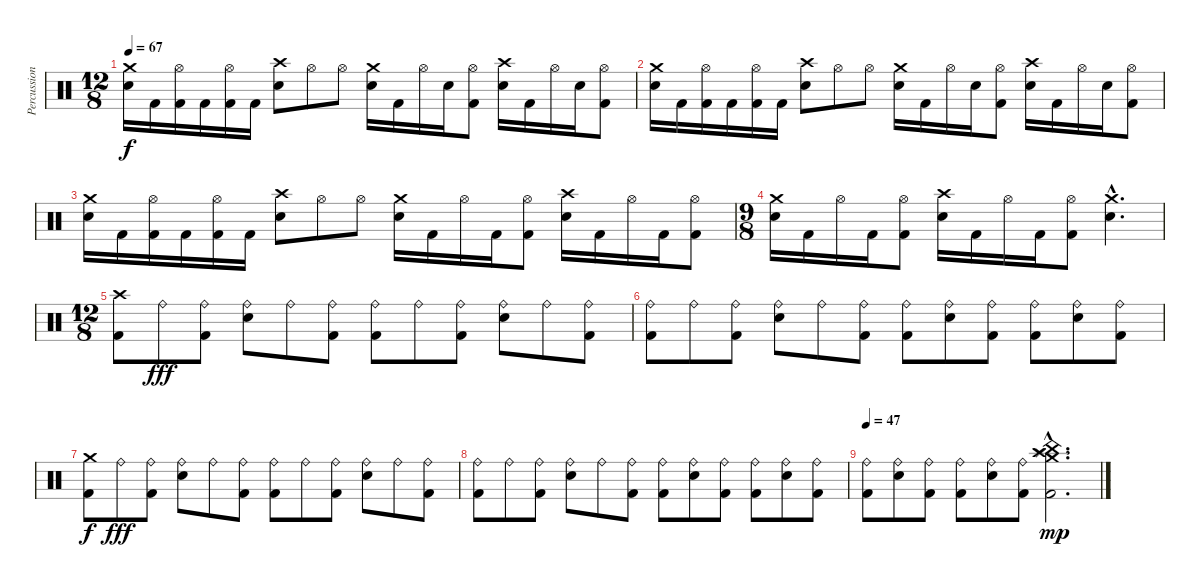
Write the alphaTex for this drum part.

\track ("Percussions" "Percussion") {instrument percussion}
\staff {score}
\articulation defaults
\ts (12 8)
\tempo 67
\clef neutral
\ks c
("Electric Snare (hit)" "Crash medium (hit)").16{dy f} "Kick (hit) 2".16 ("Kick (hit) 2" "Hi-Hat (open)").16 "Kick (hit) 2".16 ("Kick (hit) 2" "Hi-Hat (open)").16 "Kick (hit) 2".16 ("Electric Snare (hit)" "Crash high (hit)").8 "Hi-Hat (open)".8 "Hi-Hat (open)".8 ("Electric Snare (hit)" "Crash medium (hit)").16 "Kick (hit) 2".16 "Hi-Hat (open)".16 "Electric Snare (hit)".16 ("Kick (hit) 2" "Hi-Hat (open)").8 ("Electric Snare (hit)" "Crash high (hit)").16 "Kick (hit) 2".16 "Hi-Hat (open)".16 "Electric Snare (hit)".16 ("Kick (hit) 2" "Hi-Hat (open)").8 |
("Electric Snare (hit)" "Crash medium (hit)").16 "Kick (hit) 2".16 ("Kick (hit) 2" "Hi-Hat (open)").16 "Kick (hit) 2".16 ("Kick (hit) 2" "Hi-Hat (open)").16 "Kick (hit) 2".16 ("Electric Snare (hit)" "Crash high (hit)").8 "Hi-Hat (open)".8 "Hi-Hat (open)".8 ("Electric Snare (hit)" "Crash medium (hit)").16 "Kick (hit) 2".16 "Hi-Hat (open)".16 "Electric Snare (hit)".16 ("Kick (hit) 2" "Hi-Hat (open)").8 ("Electric Snare (hit)" "Crash high (hit)").16 "Kick (hit) 2".16 "Hi-Hat (open)".16 "Electric Snare (hit)".16 ("Kick (hit) 2" "Hi-Hat (open)").8 |
("Electric Snare (hit)" "Crash medium (hit)").16 "Kick (hit) 2".16 ("Kick (hit) 2" "Hi-Hat (open)").16 "Kick (hit) 2".16 ("Kick (hit) 2" "Hi-Hat (open)").16 "Kick (hit) 2".16 ("Electric Snare (hit)" "Crash high (hit)").8 "Hi-Hat (open)".8 "Hi-Hat (open)".8 ("Electric Snare (hit)" "Crash medium (hit)").16 "Kick (hit) 2".16 "Hi-Hat (open)".16 "Kick (hit) 2".16 ("Kick (hit) 2" "Hi-Hat (open)").8 ("Electric Snare (hit)" "Crash high (hit)").16 "Kick (hit) 2".16 "Hi-Hat (open)".16 "Kick (hit) 2".16 ("Kick (hit) 2" "Hi-Hat (open)").8 |
\ts (9 8)
("Electric Snare (hit)" "Crash medium (hit)").16 "Kick (hit) 2".16 "Hi-Hat (open)".16 "Kick (hit) 2".16 ("Kick (hit) 2" "Hi-Hat (open)").8 ("Electric Snare (hit)" "Crash high (hit)").16 "Kick (hit) 2".16 "Hi-Hat (open)".16 "Kick (hit) 2".16 ("Kick (hit) 2" "Hi-Hat (open)").8 ("Electric Snare (hit)"{hac} "Crash medium (hit)"{hac}).4{d} |
\ts (12 8)
("Kick (hit) 2" "Crash high (hit)").8 "Ride (bell)".8{dy fff} ("Kick (hit) 2" "Ride (bell)").8 ("Electric Snare (hit)" "Ride (bell)").8 "Ride (bell)".8 ("Kick (hit) 2" "Ride (bell)").8 ("Kick (hit) 2" "Ride (bell)").8 "Ride (bell)".8 ("Kick (hit) 2" "Ride (bell)").8 ("Electric Snare (hit)" "Ride (bell)").8 "Ride (bell)".8 ("Kick (hit) 2" "Ride (bell)").8 |
("Kick (hit) 2" "Ride (bell)").8 "Ride (bell)".8 ("Kick (hit) 2" "Ride (bell)").8 ("Electric Snare (hit)" "Ride (bell)").8 "Ride (bell)".8 ("Kick (hit) 2" "Ride (bell)").8 ("Kick (hit) 2" "Ride (bell)").8 ("Electric Snare (hit)" "Ride (bell)").8 ("Kick (hit) 2" "Ride (bell)").8 ("Kick (hit) 2" "Ride (bell)").8 ("Electric Snare (hit)" "Ride (bell)").8 ("Kick (hit) 2" "Ride (bell)").8 |
("Kick (hit) 2" "Crash medium (hit)").8{dy f} "Ride (bell)".8{dy fff} ("Kick (hit) 2" "Ride (bell)").8 ("Electric Snare (hit)" "Ride (bell)").8 "Ride (bell)".8 ("Kick (hit) 2" "Ride (bell)").8 ("Kick (hit) 2" "Ride (bell)").8 "Ride (bell)".8 ("Kick (hit) 2" "Ride (bell)").8 ("Electric Snare (hit)" "Ride (bell)").8 "Ride (bell)".8 ("Kick (hit) 2" "Ride (bell)").8 |
("Kick (hit) 2" "Ride (bell)").8 "Ride (bell)".8 ("Kick (hit) 2" "Ride (bell)").8 ("Electric Snare (hit)" "Ride (bell)").8 "Ride (bell)".8 ("Kick (hit) 2" "Ride (bell)").8 ("Kick (hit) 2" "Ride (bell)").8 ("Electric Snare (hit)" "Ride (bell)").8 ("Kick (hit) 2" "Ride (bell)").8 ("Kick (hit) 2" "Ride (bell)").8 ("Electric Snare (hit)" "Ride (bell)").8 ("Kick (hit) 2" "Ride (bell)").8 |
\tempo 47
("Kick (hit) 2" "Ride (bell)").8 ("Electric Snare (hit)" "Ride (bell)").8 ("Kick (hit) 2" "Ride (bell)").8 ("Kick (hit) 2" "Ride (bell)").8 ("Electric Snare (hit)" "Ride (bell)").8 ("Kick (hit) 2" "Ride (bell)").8 ("Kick (hit) 2"{hac} "China (hit)"{hac} "Crash high (hit)"{hac} "Crash medium (hit)"{hac} "Splash (hit)"{hac}).2{d bu 120 dy mp}
